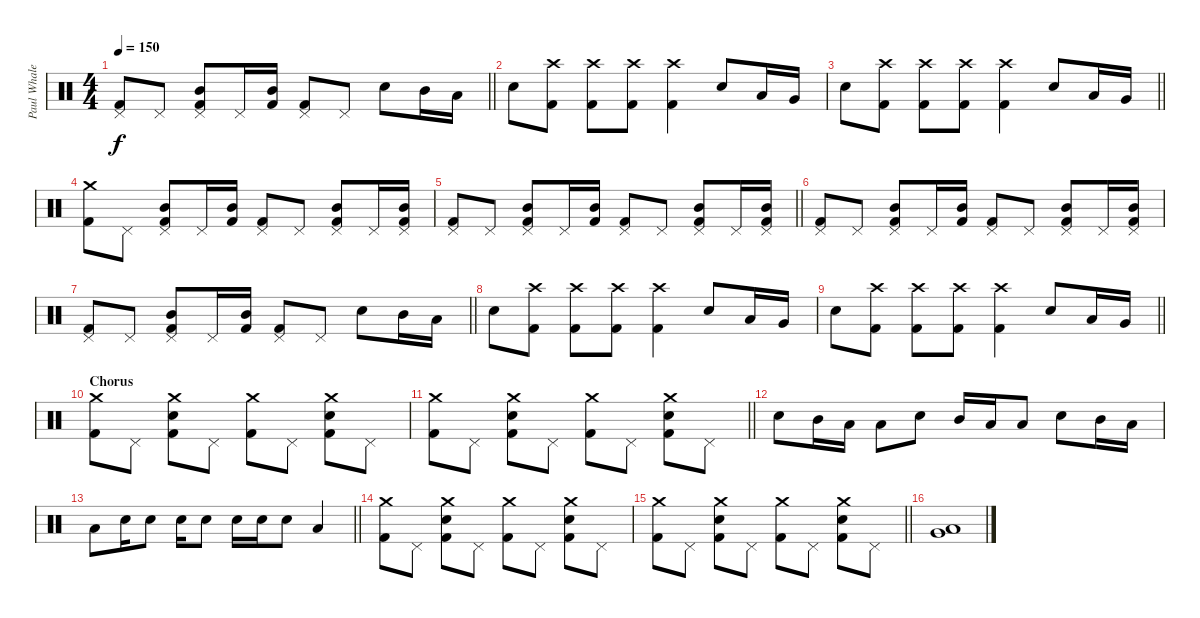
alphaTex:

\track ("Paul Whaley" "Paul Whale") {instrument percussion}
\staff {score}
\articulation defaults
\ts (4 4)
\tempo 150
\clef neutral
\barLineRight lightlight
\ks c
("Kick (hit) 2" "Pedal Hi-Hat (hit)").8{dy f} "Pedal Hi-Hat (hit)".8 ("Kick (hit) 2" "Mid Tom (hit)" "Pedal Hi-Hat (hit)").8 "Pedal Hi-Hat (hit)".16 ("Kick (hit) 2" "Mid Tom (hit)").16 ("Kick (hit) 2" "Pedal Hi-Hat (hit)").8 "Pedal Hi-Hat (hit)".8 "Snare (hit) 2".8 "Mid Tom (hit)".16 "Low Tom (hit)".16 |
"Snare (hit) 2".8 ("Kick (hit) 2" "Crash high (hit)").8 ("Kick (hit) 2" "Crash high (hit)").8 ("Kick (hit) 2" "Crash high (hit)").8 ("Kick (hit) 2" "Crash high (hit)").4 "Snare (hit) 2".8 "Low Tom (hit)".16 "Very Low Tom (hit)".16 |
\barLineRight lightlight "Snare (hit) 2".8
("Kick (hit) 2" "Crash high (hit)").8 ("Kick (hit) 2" "Crash high (hit)").8 ("Kick (hit) 2" "Crash high (hit)").8 ("Kick (hit) 2" "Crash high (hit)").4 "Snare (hit) 2".8 "Low Tom (hit)".16 "Very Low Tom (hit)".16 |
("Kick (hit) 2" "Crash medium (hit)").8 "Pedal Hi-Hat (hit)".8 ("Kick (hit) 2" "Mid Tom (hit)" "Pedal Hi-Hat (hit)").8 "Pedal Hi-Hat (hit)".16 ("Kick (hit) 2" "Mid Tom (hit)").16 ("Kick (hit) 2" "Pedal Hi-Hat (hit)").8 "Pedal Hi-Hat (hit)".8 ("Kick (hit) 2" "Mid Tom (hit)" "Pedal Hi-Hat (hit)").8 "Pedal Hi-Hat (hit)".16 ("Kick (hit) 2" "Mid Tom (hit)" "Pedal Hi-Hat (hit)").16 |
\barLineRight lightlight
("Kick (hit) 2" "Pedal Hi-Hat (hit)").8 "Pedal Hi-Hat (hit)".8 ("Kick (hit) 2" "Mid Tom (hit)" "Pedal Hi-Hat (hit)").8 "Pedal Hi-Hat (hit)".16 ("Kick (hit) 2" "Mid Tom (hit)").16 ("Kick (hit) 2" "Pedal Hi-Hat (hit)").8 "Pedal Hi-Hat (hit)".8 ("Kick (hit) 2" "Mid Tom (hit)" "Pedal Hi-Hat (hit)").8 "Pedal Hi-Hat (hit)".16 ("Kick (hit) 2" "Mid Tom (hit)" "Pedal Hi-Hat (hit)").16 |
("Kick (hit) 2" "Pedal Hi-Hat (hit)").8 "Pedal Hi-Hat (hit)".8 ("Kick (hit) 2" "Mid Tom (hit)" "Pedal Hi-Hat (hit)").8 "Pedal Hi-Hat (hit)".16 ("Kick (hit) 2" "Mid Tom (hit)").16 ("Kick (hit) 2" "Pedal Hi-Hat (hit)").8 "Pedal Hi-Hat (hit)".8 ("Kick (hit) 2" "Mid Tom (hit)" "Pedal Hi-Hat (hit)").8 "Pedal Hi-Hat (hit)".16 ("Kick (hit) 2" "Mid Tom (hit)" "Pedal Hi-Hat (hit)").16 |
\barLineRight lightlight
("Kick (hit) 2" "Pedal Hi-Hat (hit)").8 "Pedal Hi-Hat (hit)".8 ("Kick (hit) 2" "Mid Tom (hit)" "Pedal Hi-Hat (hit)").8 "Pedal Hi-Hat (hit)".16 ("Kick (hit) 2" "Mid Tom (hit)").16 ("Kick (hit) 2" "Pedal Hi-Hat (hit)").8 "Pedal Hi-Hat (hit)".8 "Snare (hit) 2".8 "Mid Tom (hit)".16 "Low Tom (hit)".16 |
"Snare (hit) 2".8 ("Kick (hit) 2" "Crash high (hit)").8 ("Kick (hit) 2" "Crash high (hit)").8 ("Kick (hit) 2" "Crash high (hit)").8 ("Kick (hit) 2" "Crash high (hit)").4 "Snare (hit) 2".8 "Low Tom (hit)".16 "Very Low Tom (hit)".16 |
\barLineRight lightlight "Snare (hit) 2".8
("Kick (hit) 2" "Crash high (hit)").8 ("Kick (hit) 2" "Crash high (hit)").8 ("Kick (hit) 2" "Crash high (hit)").8 ("Kick (hit) 2" "Crash high (hit)").4 "Snare (hit) 2".8 "Low Tom (hit)".16 "Very Low Tom (hit)".16 |
\section ("" "Chorus")
("Kick (hit) 2" "Crash medium (hit)").8 "Pedal Hi-Hat (hit)".8 ("Kick (hit) 2" "Snare (hit) 2" "Crash medium (hit)").8 "Pedal Hi-Hat (hit)".8 ("Kick (hit) 2" "Crash medium (hit)").8 "Pedal Hi-Hat (hit)".8 ("Kick (hit) 2" "Snare (hit) 2" "Crash medium (hit)").8 "Pedal Hi-Hat (hit)".8 |
\barLineRight lightlight
("Kick (hit) 2" "Crash medium (hit)").8 "Pedal Hi-Hat (hit)".8 ("Kick (hit) 2" "Snare (hit) 2" "Crash medium (hit)").8 "Pedal Hi-Hat (hit)".8 ("Kick (hit) 2" "Crash medium (hit)").8 "Pedal Hi-Hat (hit)".8 ("Kick (hit) 2" "Snare (hit) 2" "Crash medium (hit)").8 "Pedal Hi-Hat (hit)".8 |
"Snare (hit) 2".8 "Mid Tom (hit)".16 "Low Tom (hit)".16 "Low Tom (hit)".8 "Snare (hit) 2".8 "Mid Tom (hit)".16 "Low Tom (hit)".16 "Low Tom (hit)".8 "Snare (hit) 2".8 "Mid Tom (hit)".16 "Low Tom (hit)".16 |
\barLineRight lightlight "Low Tom (hit)".8 "Snare (hit) 2".16 "Snare (hit) 2".8 "Snare (hit) 2".16 "Snare (hit) 2".8 "Snare (hit) 2".16 "Snare (hit) 2".16 "Snare (hit) 2".8 "Low Tom (hit)".4
|
("Kick (hit) 2" "Crash medium (hit)").8 "Pedal Hi-Hat (hit)".8 ("Kick (hit) 2" "Snare (hit) 2" "Crash medium (hit)").8 "Pedal Hi-Hat (hit)".8 ("Kick (hit) 2" "Crash medium (hit)").8 "Pedal Hi-Hat (hit)".8 ("Kick (hit) 2" "Snare (hit) 2" "Crash medium (hit)").8 "Pedal Hi-Hat (hit)".8 |
\barLineRight lightlight
("Kick (hit) 2" "Crash medium (hit)").8 "Pedal Hi-Hat (hit)".8 ("Kick (hit) 2" "Snare (hit) 2" "Crash medium (hit)").8 "Pedal Hi-Hat (hit)".8 ("Kick (hit) 2" "Crash medium (hit)").8 "Pedal Hi-Hat (hit)".8 ("Kick (hit) 2" "Snare (hit) 2" "Crash medium (hit)").8 "Pedal Hi-Hat (hit)".8 |
("Low Tom (hit)" "Very Low Tom (hit)").1
